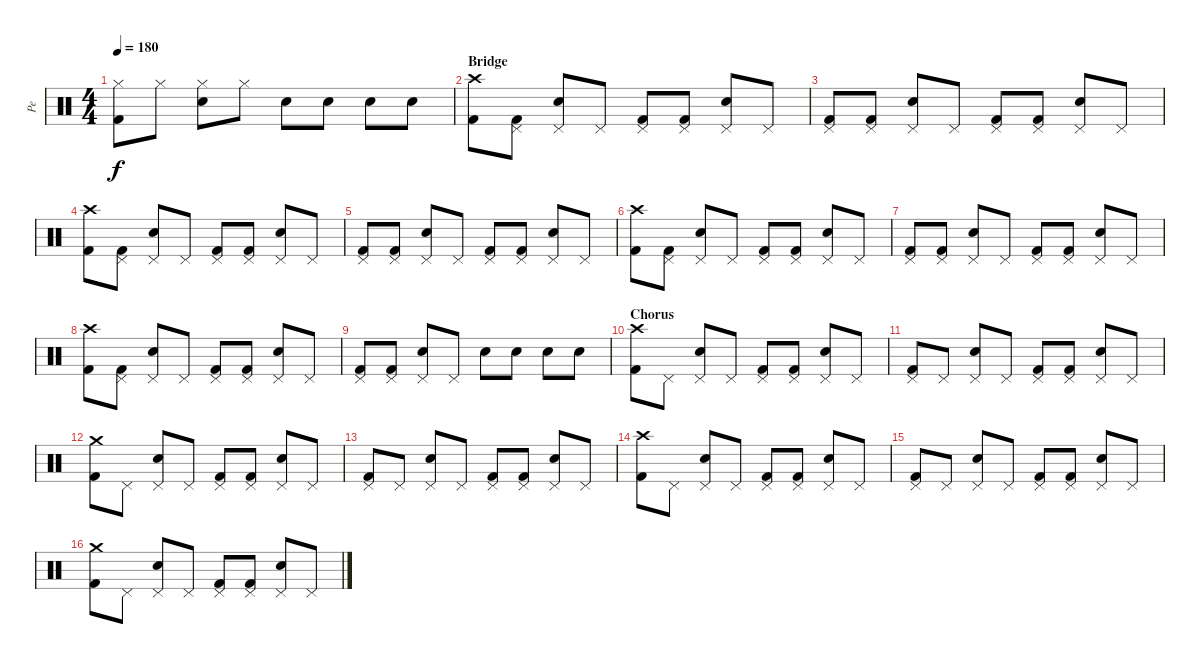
\track ("Pe" "Pe") {instrument percussion}
\staff {score}
\articulation defaults
\ts (4 4)
\tempo 180
\clef neutral
\ks c
("Hi-Hat (closed)" "Kick (hit) 2").8{dy f} "Hi-Hat (closed)".8 ("Hi-Hat (closed)" "Electric Snare (hit)").8 "Hi-Hat (closed)".8 "Electric Snare (hit)".8 "Electric Snare (hit)".8 "Electric Snare (hit)".8 "Electric Snare (hit)".8 |
\section ("" "Bridge")
("Crash high (hit)" "Kick (hit) 2").8 ("Pedal Hi-Hat (hit)" "Kick (hit) 2").8 ("Pedal Hi-Hat (hit)" "Electric Snare (hit)").8 "Pedal Hi-Hat (hit)".8 ("Pedal Hi-Hat (hit)" "Kick (hit) 2").8 ("Pedal Hi-Hat (hit)" "Kick (hit) 2").8 ("Pedal Hi-Hat (hit)" "Electric Snare (hit)").8 "Pedal Hi-Hat (hit)".8 |
("Pedal Hi-Hat (hit)" "Kick (hit) 2").8 ("Pedal Hi-Hat (hit)" "Kick (hit) 2").8 ("Pedal Hi-Hat (hit)" "Electric Snare (hit)").8 "Pedal Hi-Hat (hit)".8 ("Pedal Hi-Hat (hit)" "Kick (hit) 2").8 ("Pedal Hi-Hat (hit)" "Kick (hit) 2").8 ("Pedal Hi-Hat (hit)" "Electric Snare (hit)").8 "Pedal Hi-Hat (hit)".8 |
("Crash high (hit)" "Kick (hit) 2").8 ("Pedal Hi-Hat (hit)" "Kick (hit) 2").8 ("Pedal Hi-Hat (hit)" "Electric Snare (hit)").8 "Pedal Hi-Hat (hit)".8 ("Pedal Hi-Hat (hit)" "Kick (hit) 2").8 ("Pedal Hi-Hat (hit)" "Kick (hit) 2").8 ("Pedal Hi-Hat (hit)" "Electric Snare (hit)").8 "Pedal Hi-Hat (hit)".8 |
("Pedal Hi-Hat (hit)" "Kick (hit) 2").8 ("Pedal Hi-Hat (hit)" "Kick (hit) 2").8 ("Pedal Hi-Hat (hit)" "Electric Snare (hit)").8 "Pedal Hi-Hat (hit)".8 ("Pedal Hi-Hat (hit)" "Kick (hit) 2").8 ("Pedal Hi-Hat (hit)" "Kick (hit) 2").8 ("Pedal Hi-Hat (hit)" "Electric Snare (hit)").8 "Pedal Hi-Hat (hit)".8 |
("Crash high (hit)" "Kick (hit) 2").8 ("Pedal Hi-Hat (hit)" "Kick (hit) 2").8 ("Pedal Hi-Hat (hit)" "Electric Snare (hit)").8 "Pedal Hi-Hat (hit)".8 ("Pedal Hi-Hat (hit)" "Kick (hit) 2").8 ("Pedal Hi-Hat (hit)" "Kick (hit) 2").8 ("Pedal Hi-Hat (hit)" "Electric Snare (hit)").8 "Pedal Hi-Hat (hit)".8 |
("Pedal Hi-Hat (hit)" "Kick (hit) 2").8 ("Pedal Hi-Hat (hit)" "Kick (hit) 2").8 ("Pedal Hi-Hat (hit)" "Electric Snare (hit)").8 "Pedal Hi-Hat (hit)".8 ("Pedal Hi-Hat (hit)" "Kick (hit) 2").8 ("Pedal Hi-Hat (hit)" "Kick (hit) 2").8 ("Pedal Hi-Hat (hit)" "Electric Snare (hit)").8 "Pedal Hi-Hat (hit)".8 |
("Crash high (hit)" "Kick (hit) 2").8 ("Pedal Hi-Hat (hit)" "Kick (hit) 2").8 ("Pedal Hi-Hat (hit)" "Electric Snare (hit)").8 "Pedal Hi-Hat (hit)".8 ("Pedal Hi-Hat (hit)" "Kick (hit) 2").8 ("Pedal Hi-Hat (hit)" "Kick (hit) 2").8 ("Pedal Hi-Hat (hit)" "Electric Snare (hit)").8 "Pedal Hi-Hat (hit)".8 |
("Pedal Hi-Hat (hit)" "Kick (hit) 2").8 ("Pedal Hi-Hat (hit)" "Kick (hit) 2").8 ("Pedal Hi-Hat (hit)" "Electric Snare (hit)").8 "Pedal Hi-Hat (hit)".8 "Electric Snare (hit)".8 "Electric Snare (hit)".8 "Electric Snare (hit)".8 "Electric Snare (hit)".8 |
\section ("" "Chorus")
("Crash high (hit)" "Kick (hit) 2").8 "Pedal Hi-Hat (hit)".8 ("Pedal Hi-Hat (hit)" "Electric Snare (hit)").8 "Pedal Hi-Hat (hit)".8 ("Pedal Hi-Hat (hit)" "Kick (hit) 2").8 ("Pedal Hi-Hat (hit)" "Kick (hit) 2").8 ("Pedal Hi-Hat (hit)" "Electric Snare (hit)").8 "Pedal Hi-Hat (hit)".8 |
("Pedal Hi-Hat (hit)" "Kick (hit) 2").8 "Pedal Hi-Hat (hit)".8 ("Pedal Hi-Hat (hit)" "Electric Snare (hit)").8 "Pedal Hi-Hat (hit)".8 ("Pedal Hi-Hat (hit)" "Kick (hit) 2").8 ("Pedal Hi-Hat (hit)" "Kick (hit) 2").8 ("Pedal Hi-Hat (hit)" "Electric Snare (hit)").8 "Pedal Hi-Hat (hit)".8 |
("Crash medium (hit)" "Kick (hit) 2").8 "Pedal Hi-Hat (hit)".8 ("Pedal Hi-Hat (hit)" "Electric Snare (hit)").8 "Pedal Hi-Hat (hit)".8 ("Pedal Hi-Hat (hit)" "Kick (hit) 2").8 ("Pedal Hi-Hat (hit)" "Kick (hit) 2").8 ("Pedal Hi-Hat (hit)" "Electric Snare (hit)").8 "Pedal Hi-Hat (hit)".8 |
("Pedal Hi-Hat (hit)" "Kick (hit) 2").8 "Pedal Hi-Hat (hit)".8 ("Pedal Hi-Hat (hit)" "Electric Snare (hit)").8 "Pedal Hi-Hat (hit)".8 ("Pedal Hi-Hat (hit)" "Kick (hit) 2").8 ("Pedal Hi-Hat (hit)" "Kick (hit) 2").8 ("Pedal Hi-Hat (hit)" "Electric Snare (hit)").8 "Pedal Hi-Hat (hit)".8 |
("Crash high (hit)" "Kick (hit) 2").8 "Pedal Hi-Hat (hit)".8 ("Pedal Hi-Hat (hit)" "Electric Snare (hit)").8 "Pedal Hi-Hat (hit)".8 ("Pedal Hi-Hat (hit)" "Kick (hit) 2").8 ("Pedal Hi-Hat (hit)" "Kick (hit) 2").8 ("Pedal Hi-Hat (hit)" "Electric Snare (hit)").8 "Pedal Hi-Hat (hit)".8 |
("Pedal Hi-Hat (hit)" "Kick (hit) 2").8 "Pedal Hi-Hat (hit)".8 ("Pedal Hi-Hat (hit)" "Electric Snare (hit)").8 "Pedal Hi-Hat (hit)".8 ("Pedal Hi-Hat (hit)" "Kick (hit) 2").8 ("Pedal Hi-Hat (hit)" "Kick (hit) 2").8 ("Pedal Hi-Hat (hit)" "Electric Snare (hit)").8 "Pedal Hi-Hat (hit)".8 |
("Crash medium (hit)" "Kick (hit) 2").8 "Pedal Hi-Hat (hit)".8 ("Pedal Hi-Hat (hit)" "Electric Snare (hit)").8 "Pedal Hi-Hat (hit)".8 ("Pedal Hi-Hat (hit)" "Kick (hit) 2").8 ("Pedal Hi-Hat (hit)" "Kick (hit) 2").8 ("Pedal Hi-Hat (hit)" "Electric Snare (hit)").8 "Pedal Hi-Hat (hit)".8
